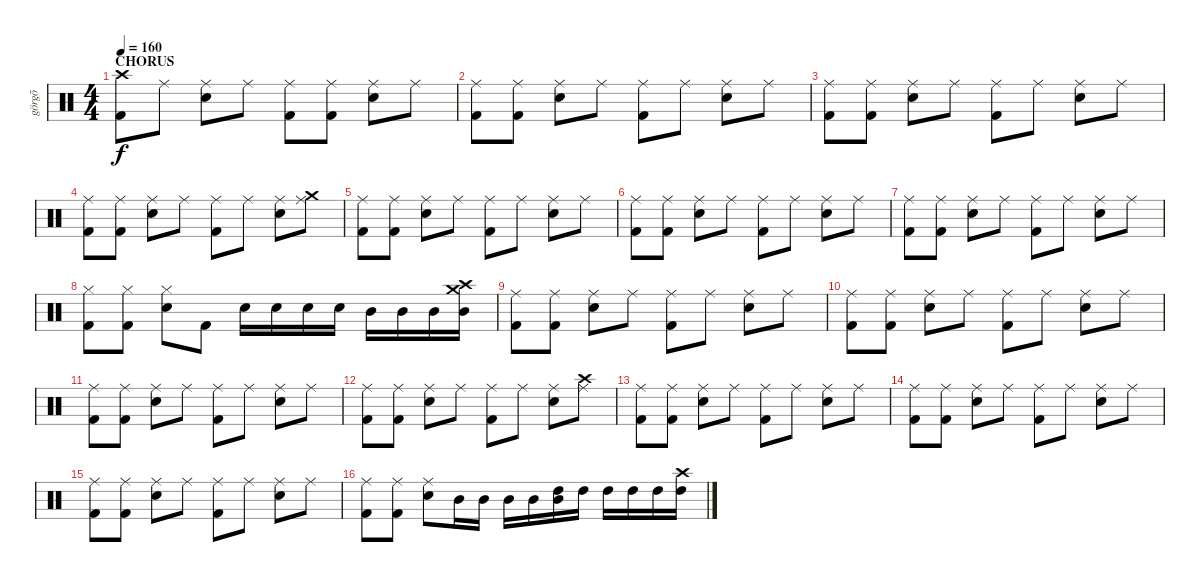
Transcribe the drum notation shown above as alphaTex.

\track ("görgõ" "görgõ") {instrument percussion}
\staff {score}
\articulation defaults
\ts (4 4)
\section ("" "CHORUS")
\tempo 160
\clef neutral
\ks c
("Crash high (hit)" "Kick (hit) 2").8{dy f} "Ride (middle)".8 ("Ride (middle)" "Snare (hit) 2").8 "Ride (middle)".8 ("Ride (middle)" "Kick (hit) 2").8 ("Ride (middle)" "Kick (hit) 2").8 ("Ride (middle)" "Snare (hit) 2").8 "Ride (middle)".8 |
("Ride (middle)" "Kick (hit) 2").8 ("Ride (middle)" "Kick (hit) 2").8 ("Ride (middle)" "Snare (hit) 2").8 "Ride (middle)".8 ("Ride (middle)" "Kick (hit) 2").8 "Ride (middle)".8 ("Ride (middle)" "Snare (hit) 2").8 "Ride (middle)".8 |
("Ride (middle)" "Kick (hit) 2").8 ("Ride (middle)" "Kick (hit) 2").8 ("Ride (middle)" "Snare (hit) 2").8 "Ride (middle)".8 ("Ride (middle)" "Kick (hit) 2").8 "Ride (middle)".8 ("Ride (middle)" "Snare (hit) 2").8 "Ride (middle)".8 |
("Ride (middle)" "Kick (hit) 2").8 ("Ride (middle)" "Kick (hit) 2").8 ("Ride (middle)" "Snare (hit) 2").8 "Ride (middle)".8 ("Ride (middle)" "Kick (hit) 2").8 "Ride (middle)".8 ("Ride (middle)" "Snare (hit) 2").8 ("Ride (middle)" "Crash medium (hit)").8 |
("Ride (middle)" "Kick (hit) 2").8 ("Ride (middle)" "Kick (hit) 2").8 ("Ride (middle)" "Snare (hit) 2").8 "Ride (middle)".8 ("Ride (middle)" "Kick (hit) 2").8 "Ride (middle)".8 ("Ride (middle)" "Snare (hit) 2").8 "Ride (middle)".8 |
("Ride (middle)" "Kick (hit) 2").8 ("Ride (middle)" "Kick (hit) 2").8 ("Ride (middle)" "Snare (hit) 2").8 "Ride (middle)".8 ("Ride (middle)" "Kick (hit) 2").8 "Ride (middle)".8 ("Ride (middle)" "Snare (hit) 2").8 "Ride (middle)".8 |
("Ride (middle)" "Kick (hit) 2").8 ("Ride (middle)" "Kick (hit) 2").8 ("Ride (middle)" "Snare (hit) 2").8 "Ride (middle)".8 ("Ride (middle)" "Kick (hit) 2").8 "Ride (middle)".8 ("Ride (middle)" "Snare (hit) 2").8 "Ride (middle)".8 |
("Hi-Hat (closed)" "Kick (hit) 2").8 ("Hi-Hat (closed)" "Kick (hit) 2").8 ("Hi-Hat (closed)" "Snare (hit) 2").8 "Kick (hit) 2".8 "Snare (hit) 2".16 "Snare (hit) 2".16 "Snare (hit) 2".16 "Snare (hit) 2".16 "Mid Tom (hit)".16 "Mid Tom (hit)".16 "Mid Tom (hit)".16 ("Mid Tom (hit)" "Crash high (hit)" "Crash medium (hit)").16 |
("Ride (middle)" "Kick (hit) 2").8 ("Ride (middle)" "Kick (hit) 2").8 ("Ride (middle)" "Snare (hit) 2").8 "Ride (middle)".8 ("Ride (middle)" "Kick (hit) 2").8 "Ride (middle)".8 ("Ride (middle)" "Snare (hit) 2").8 "Ride (middle)".8 |
("Ride (middle)" "Kick (hit) 2").8 ("Ride (middle)" "Kick (hit) 2").8 ("Ride (middle)" "Snare (hit) 2").8 "Ride (middle)".8 ("Ride (middle)" "Kick (hit) 2").8 "Ride (middle)".8 ("Ride (middle)" "Snare (hit) 2").8 "Ride (middle)".8 |
("Ride (middle)" "Kick (hit) 2").8 ("Ride (middle)" "Kick (hit) 2").8 ("Ride (middle)" "Snare (hit) 2").8 "Ride (middle)".8 ("Ride (middle)" "Kick (hit) 2").8 "Ride (middle)".8 ("Ride (middle)" "Snare (hit) 2").8 "Ride (middle)".8 |
("Ride (middle)" "Kick (hit) 2").8 ("Ride (middle)" "Kick (hit) 2").8 ("Ride (middle)" "Snare (hit) 2").8 "Ride (middle)".8 ("Ride (middle)" "Kick (hit) 2").8 "Ride (middle)".8 ("Ride (middle)" "Snare (hit) 2").8 ("Ride (middle)" "Crash high (hit)").8 |
("Ride (middle)" "Kick (hit) 2").8 ("Ride (middle)" "Kick (hit) 2").8 ("Ride (middle)" "Snare (hit) 2").8 "Ride (middle)".8 ("Ride (middle)" "Kick (hit) 2").8 "Ride (middle)".8 ("Ride (middle)" "Snare (hit) 2").8 "Ride (middle)".8 |
("Ride (middle)" "Kick (hit) 2").8 ("Ride (middle)" "Kick (hit) 2").8 ("Ride (middle)" "Snare (hit) 2").8 "Ride (middle)".8 ("Ride (middle)" "Kick (hit) 2").8 "Ride (middle)".8 ("Ride (middle)" "Snare (hit) 2").8 "Ride (middle)".8 |
("Ride (middle)" "Kick (hit) 2").8 ("Ride (middle)" "Kick (hit) 2").8 ("Ride (middle)" "Snare (hit) 2").8 "Ride (middle)".8 ("Ride (middle)" "Kick (hit) 2").8 "Ride (middle)".8 ("Ride (middle)" "Snare (hit) 2").8 "Ride (middle)".8 |
("Ride (middle)" "Kick (hit) 2").8 ("Ride (middle)" "Kick (hit) 2").8 ("Ride (middle)" "Snare (hit) 2").8 "Mid Tom (hit)".16 "Mid Tom (hit)".16 "Mid Tom (hit)".16 "Mid Tom (hit)".16 ("High Tom (hit)" "Mid Tom (hit)").16 "High Tom (hit)".16 "High Tom (hit)".16 "High Tom (hit)".16 "High Tom (hit)".16 ("High Tom (hit)" "Crash high (hit)").16
